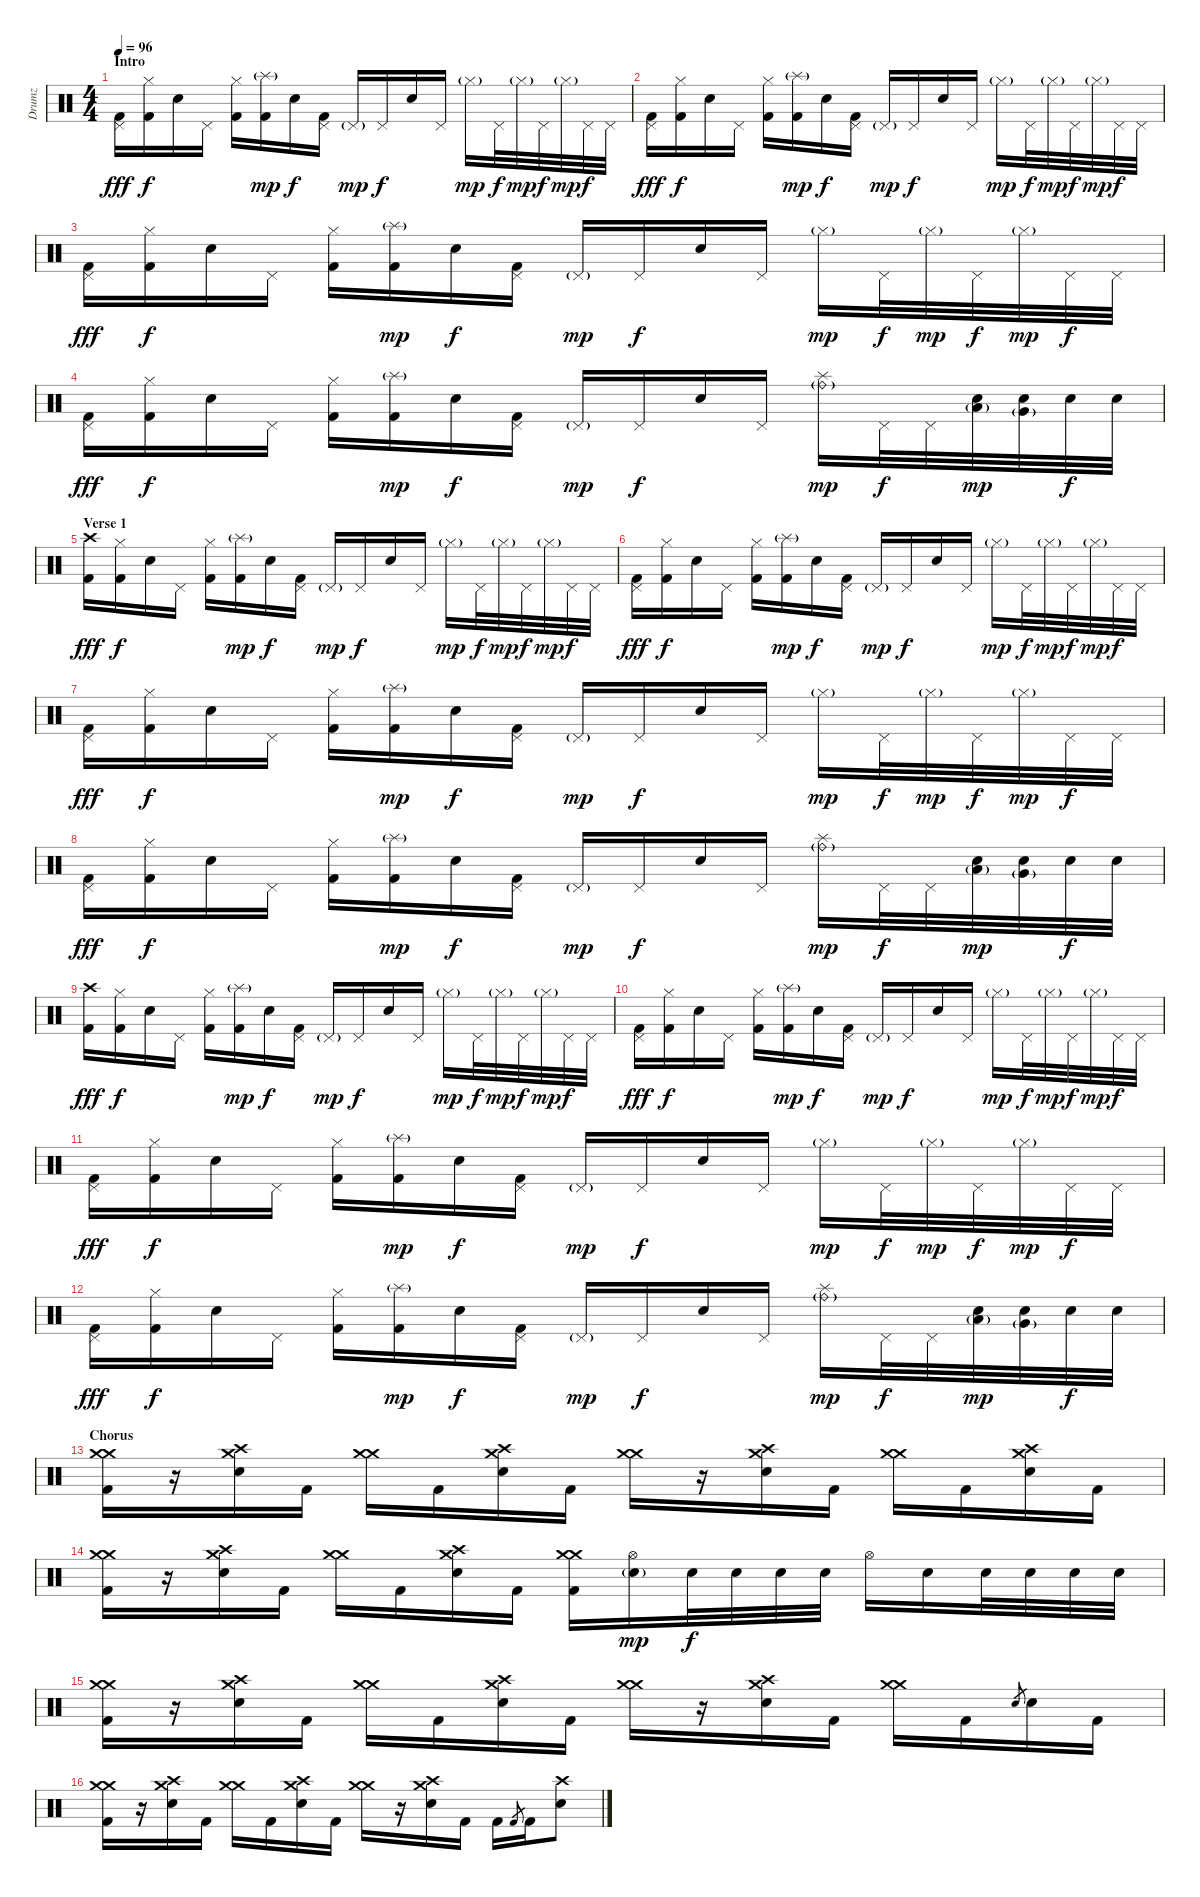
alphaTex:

\track ("Drumz" "Drumz") {instrument percussion}
\staff {score}
\articulation defaults
\ts (4 4)
\section ("" "Intro")
\tempo 96
\clef neutral
\ks c
("Pedal Hi-Hat (hit)" "Kick (hit) 2").16{dy fff} ("Hi-Hat (closed)" "Kick (hit) 2").16{dy f} "Electric Snare (hit)".16 "Pedal Hi-Hat (hit)".16 ("Hi-Hat (closed)" "Kick (hit) 2").16 ("Splash (hit)"{g} "Kick (hit) 2").16{dy mp} "Electric Snare (hit)".16{dy f} ("Pedal Hi-Hat (hit)" "Kick (hit) 2").16 "Pedal Hi-Hat (hit)"{g}.16{dy mp} "Pedal Hi-Hat (hit)".16{dy f} "Electric Snare (hit)".16 "Pedal Hi-Hat (hit)".16 "Hi-Hat (closed)"{g}.16{dy mp} "Pedal Hi-Hat (hit)".32{dy f} "Hi-Hat (closed)"{g}.32{dy mp} "Pedal Hi-Hat (hit)".32{dy f} "Hi-Hat (closed)"{g}.32{dy mp} "Pedal Hi-Hat (hit)".32{dy f} "Pedal Hi-Hat (hit)".32 |
("Pedal Hi-Hat (hit)" "Kick (hit) 2").16{dy fff} ("Hi-Hat (closed)" "Kick (hit) 2").16{dy f} "Electric Snare (hit)".16 "Pedal Hi-Hat (hit)".16 ("Hi-Hat (closed)" "Kick (hit) 2").16 ("Splash (hit)"{g} "Kick (hit) 2").16{dy mp} "Electric Snare (hit)".16{dy f} ("Pedal Hi-Hat (hit)" "Kick (hit) 2").16 "Pedal Hi-Hat (hit)"{g}.16{dy mp} "Pedal Hi-Hat (hit)".16{dy f} "Electric Snare (hit)".16 "Pedal Hi-Hat (hit)".16 "Hi-Hat (closed)"{g}.16{dy mp} "Pedal Hi-Hat (hit)".32{dy f} "Hi-Hat (closed)"{g}.32{dy mp} "Pedal Hi-Hat (hit)".32{dy f} "Hi-Hat (closed)"{g}.32{dy mp} "Pedal Hi-Hat (hit)".32{dy f} "Pedal Hi-Hat (hit)".32 |
("Pedal Hi-Hat (hit)" "Kick (hit) 2").16{dy fff} ("Hi-Hat (closed)" "Kick (hit) 2").16{dy f} "Electric Snare (hit)".16 "Pedal Hi-Hat (hit)".16 ("Hi-Hat (closed)" "Kick (hit) 2").16 ("Splash (hit)"{g} "Kick (hit) 2").16{dy mp} "Electric Snare (hit)".16{dy f} ("Pedal Hi-Hat (hit)" "Kick (hit) 2").16 "Pedal Hi-Hat (hit)"{g}.16{dy mp} "Pedal Hi-Hat (hit)".16{dy f} "Electric Snare (hit)".16 "Pedal Hi-Hat (hit)".16 "Hi-Hat (closed)"{g}.16{dy mp} "Pedal Hi-Hat (hit)".32{dy f} "Hi-Hat (closed)"{g}.32{dy mp} "Pedal Hi-Hat (hit)".32{dy f} "Hi-Hat (closed)"{g}.32{dy mp} "Pedal Hi-Hat (hit)".32{dy f} "Pedal Hi-Hat (hit)".32 |
("Pedal Hi-Hat (hit)" "Kick (hit) 2").16{dy fff} ("Hi-Hat (closed)" "Kick (hit) 2").16{dy f} "Electric Snare (hit)".16 "Pedal Hi-Hat (hit)".16 ("Hi-Hat (closed)" "Kick (hit) 2").16 ("Splash (hit)"{g} "Kick (hit) 2").16{dy mp} "Electric Snare (hit)".16{dy f} ("Pedal Hi-Hat (hit)" "Kick (hit) 2").16 "Pedal Hi-Hat (hit)"{g}.16{dy mp} "Pedal Hi-Hat (hit)".16{dy f} "Electric Snare (hit)".16 "Pedal Hi-Hat (hit)".16 ("Ride (bell)"{g} "Splash (hit)").16{dy mp} "Pedal Hi-Hat (hit)".32{dy f} "Pedal Hi-Hat (hit)".32 ("Low Floor Tom (hit)"{g} "Electric Snare (hit)").32{dy mp} ("Very Low Tom (hit)"{g} "Electric Snare (hit)").32 "Electric Snare (hit)".32{dy f} "Electric Snare (hit)".32 |
\section ("" "Verse 1")
("Crash high (hit)" "Kick (hit) 2").16{dy fff} ("Hi-Hat (closed)" "Kick (hit) 2").16{dy f} "Electric Snare (hit)".16 "Pedal Hi-Hat (hit)".16 ("Hi-Hat (closed)" "Kick (hit) 2").16 ("Splash (hit)"{g} "Kick (hit) 2").16{dy mp} "Electric Snare (hit)".16{dy f} ("Pedal Hi-Hat (hit)" "Kick (hit) 2").16 "Pedal Hi-Hat (hit)"{g}.16{dy mp} "Pedal Hi-Hat (hit)".16{dy f} "Electric Snare (hit)".16 "Pedal Hi-Hat (hit)".16 "Hi-Hat (closed)"{g}.16{dy mp} "Pedal Hi-Hat (hit)".32{dy f} "Hi-Hat (closed)"{g}.32{dy mp} "Pedal Hi-Hat (hit)".32{dy f} "Hi-Hat (closed)"{g}.32{dy mp} "Pedal Hi-Hat (hit)".32{dy f} "Pedal Hi-Hat (hit)".32 |
("Pedal Hi-Hat (hit)" "Kick (hit) 2").16{dy fff} ("Hi-Hat (closed)" "Kick (hit) 2").16{dy f} "Electric Snare (hit)".16 "Pedal Hi-Hat (hit)".16 ("Hi-Hat (closed)" "Kick (hit) 2").16 ("Splash (hit)"{g} "Kick (hit) 2").16{dy mp} "Electric Snare (hit)".16{dy f} ("Pedal Hi-Hat (hit)" "Kick (hit) 2").16 "Pedal Hi-Hat (hit)"{g}.16{dy mp} "Pedal Hi-Hat (hit)".16{dy f} "Electric Snare (hit)".16 "Pedal Hi-Hat (hit)".16 "Hi-Hat (closed)"{g}.16{dy mp} "Pedal Hi-Hat (hit)".32{dy f} "Hi-Hat (closed)"{g}.32{dy mp} "Pedal Hi-Hat (hit)".32{dy f} "Hi-Hat (closed)"{g}.32{dy mp} "Pedal Hi-Hat (hit)".32{dy f} "Pedal Hi-Hat (hit)".32 |
("Pedal Hi-Hat (hit)" "Kick (hit) 2").16{dy fff} ("Hi-Hat (closed)" "Kick (hit) 2").16{dy f} "Electric Snare (hit)".16 "Pedal Hi-Hat (hit)".16 ("Hi-Hat (closed)" "Kick (hit) 2").16 ("Splash (hit)"{g} "Kick (hit) 2").16{dy mp} "Electric Snare (hit)".16{dy f} ("Pedal Hi-Hat (hit)" "Kick (hit) 2").16 "Pedal Hi-Hat (hit)"{g}.16{dy mp} "Pedal Hi-Hat (hit)".16{dy f} "Electric Snare (hit)".16 "Pedal Hi-Hat (hit)".16 "Hi-Hat (closed)"{g}.16{dy mp} "Pedal Hi-Hat (hit)".32{dy f} "Hi-Hat (closed)"{g}.32{dy mp} "Pedal Hi-Hat (hit)".32{dy f} "Hi-Hat (closed)"{g}.32{dy mp} "Pedal Hi-Hat (hit)".32{dy f} "Pedal Hi-Hat (hit)".32 |
("Pedal Hi-Hat (hit)" "Kick (hit) 2").16{dy fff} ("Hi-Hat (closed)" "Kick (hit) 2").16{dy f} "Electric Snare (hit)".16 "Pedal Hi-Hat (hit)".16 ("Hi-Hat (closed)" "Kick (hit) 2").16 ("Splash (hit)"{g} "Kick (hit) 2").16{dy mp} "Electric Snare (hit)".16{dy f} ("Pedal Hi-Hat (hit)" "Kick (hit) 2").16 "Pedal Hi-Hat (hit)"{g}.16{dy mp} "Pedal Hi-Hat (hit)".16{dy f} "Electric Snare (hit)".16 "Pedal Hi-Hat (hit)".16 ("Ride (bell)"{g} "Splash (hit)").16{dy mp} "Pedal Hi-Hat (hit)".32{dy f} "Pedal Hi-Hat (hit)".32 ("Low Floor Tom (hit)"{g} "Electric Snare (hit)").32{dy mp} ("Very Low Tom (hit)"{g} "Electric Snare (hit)").32 "Electric Snare (hit)".32{dy f} "Electric Snare (hit)".32 |
("Crash high (hit)" "Kick (hit) 2").16{dy fff} ("Hi-Hat (closed)" "Kick (hit) 2").16{dy f} "Electric Snare (hit)".16 "Pedal Hi-Hat (hit)".16 ("Hi-Hat (closed)" "Kick (hit) 2").16 ("Splash (hit)"{g} "Kick (hit) 2").16{dy mp} "Electric Snare (hit)".16{dy f} ("Pedal Hi-Hat (hit)" "Kick (hit) 2").16 "Pedal Hi-Hat (hit)"{g}.16{dy mp} "Pedal Hi-Hat (hit)".16{dy f} "Electric Snare (hit)".16 "Pedal Hi-Hat (hit)".16 "Hi-Hat (closed)"{g}.16{dy mp} "Pedal Hi-Hat (hit)".32{dy f} "Hi-Hat (closed)"{g}.32{dy mp} "Pedal Hi-Hat (hit)".32{dy f} "Hi-Hat (closed)"{g}.32{dy mp} "Pedal Hi-Hat (hit)".32{dy f} "Pedal Hi-Hat (hit)".32 |
("Pedal Hi-Hat (hit)" "Kick (hit) 2").16{dy fff} ("Hi-Hat (closed)" "Kick (hit) 2").16{dy f} "Electric Snare (hit)".16 "Pedal Hi-Hat (hit)".16 ("Hi-Hat (closed)" "Kick (hit) 2").16 ("Splash (hit)"{g} "Kick (hit) 2").16{dy mp} "Electric Snare (hit)".16{dy f} ("Pedal Hi-Hat (hit)" "Kick (hit) 2").16 "Pedal Hi-Hat (hit)"{g}.16{dy mp} "Pedal Hi-Hat (hit)".16{dy f} "Electric Snare (hit)".16 "Pedal Hi-Hat (hit)".16 "Hi-Hat (closed)"{g}.16{dy mp} "Pedal Hi-Hat (hit)".32{dy f} "Hi-Hat (closed)"{g}.32{dy mp} "Pedal Hi-Hat (hit)".32{dy f} "Hi-Hat (closed)"{g}.32{dy mp} "Pedal Hi-Hat (hit)".32{dy f} "Pedal Hi-Hat (hit)".32 |
("Pedal Hi-Hat (hit)" "Kick (hit) 2").16{dy fff} ("Hi-Hat (closed)" "Kick (hit) 2").16{dy f} "Electric Snare (hit)".16 "Pedal Hi-Hat (hit)".16 ("Hi-Hat (closed)" "Kick (hit) 2").16 ("Splash (hit)"{g} "Kick (hit) 2").16{dy mp} "Electric Snare (hit)".16{dy f} ("Pedal Hi-Hat (hit)" "Kick (hit) 2").16 "Pedal Hi-Hat (hit)"{g}.16{dy mp} "Pedal Hi-Hat (hit)".16{dy f} "Electric Snare (hit)".16 "Pedal Hi-Hat (hit)".16 "Hi-Hat (closed)"{g}.16{dy mp} "Pedal Hi-Hat (hit)".32{dy f} "Hi-Hat (closed)"{g}.32{dy mp} "Pedal Hi-Hat (hit)".32{dy f} "Hi-Hat (closed)"{g}.32{dy mp} "Pedal Hi-Hat (hit)".32{dy f} "Pedal Hi-Hat (hit)".32 |
("Pedal Hi-Hat (hit)" "Kick (hit) 2").16{dy fff} ("Hi-Hat (closed)" "Kick (hit) 2").16{dy f} "Electric Snare (hit)".16 "Pedal Hi-Hat (hit)".16 ("Hi-Hat (closed)" "Kick (hit) 2").16 ("Splash (hit)"{g} "Kick (hit) 2").16{dy mp} "Electric Snare (hit)".16{dy f} ("Pedal Hi-Hat (hit)" "Kick (hit) 2").16 "Pedal Hi-Hat (hit)"{g}.16{dy mp} "Pedal Hi-Hat (hit)".16{dy f} "Electric Snare (hit)".16 "Pedal Hi-Hat (hit)".16 ("Ride (bell)"{g} "Splash (hit)").16{dy mp} "Pedal Hi-Hat (hit)".32{dy f} "Pedal Hi-Hat (hit)".32 ("Low Floor Tom (hit)"{g} "Electric Snare (hit)").32{dy mp} ("Very Low Tom (hit)"{g} "Electric Snare (hit)").32 "Electric Snare (hit)".32{dy f} "Electric Snare (hit)".32 |
\section ("" "Chorus")
("Crash medium (hit)" "Crash medium (hit)" "Kick (hit) 2").16 r.16 ("Crash high (hit)" "Crash medium (hit)" "Electric Snare (hit)").16 "Kick (hit) 2".16 ("Crash medium (hit)" "Crash medium (hit)").16 "Kick (hit) 2".16 ("Crash high (hit)" "Crash medium (hit)" "Electric Snare (hit)").16 "Kick (hit) 2".16 ("Crash medium (hit)" "Crash medium (hit)").16 r.16 ("Crash high (hit)" "Crash medium (hit)" "Electric Snare (hit)").16 "Kick (hit) 2".16 ("Crash medium (hit)" "Crash medium (hit)").16 "Kick (hit) 2".16 ("Crash high (hit)" "Crash medium (hit)" "Electric Snare (hit)").16 "Kick (hit) 2".16 |
("Crash medium (hit)" "Crash medium (hit)" "Kick (hit) 2").16 r.16 ("Crash high (hit)" "Crash medium (hit)" "Electric Snare (hit)").16 "Kick (hit) 2".16 ("Crash medium (hit)" "Crash medium (hit)").16 "Kick (hit) 2".16 ("Crash high (hit)" "Crash medium (hit)" "Electric Snare (hit)").16 "Kick (hit) 2".16 ("Crash medium (hit)" "Crash medium (hit)" "Kick (hit) 2").16 ("Hi-Hat (open)" "Electric Snare (hit)"{g}).16{dy mp} "Electric Snare (hit)".32{dy f} "Electric Snare (hit)".32 "Electric Snare (hit)".32 "Electric Snare (hit)".32 "Hi-Hat (open)".16 "Electric Snare (hit)".16 "Electric Snare (hit)".32 "Electric Snare (hit)".32 "Electric Snare (hit)".32 "Electric Snare (hit)".32 |
("Crash medium (hit)" "Crash medium (hit)" "Kick (hit) 2").16 r.16 ("Crash high (hit)" "Crash medium (hit)" "Electric Snare (hit)").16 "Kick (hit) 2".16 ("Crash medium (hit)" "Crash medium (hit)").16 "Kick (hit) 2".16 ("Crash high (hit)" "Crash medium (hit)" "Electric Snare (hit)").16 "Kick (hit) 2".16 ("Crash medium (hit)" "Crash medium (hit)").16 r.16 ("Crash high (hit)" "Crash medium (hit)" "Electric Snare (hit)").16 "Kick (hit) 2".16 ("Crash medium (hit)" "Crash medium (hit)").16 "Kick (hit) 2".16 "Electric Snare (hit)".8{gr} "Electric Snare (hit)".16 "Kick (hit) 2".16 |
("Crash medium (hit)" "Crash medium (hit)" "Kick (hit) 2").16 r.16 ("Crash high (hit)" "Crash medium (hit)" "Electric Snare (hit)").16 "Kick (hit) 2".16 ("Crash medium (hit)" "Crash medium (hit)").16 "Kick (hit) 2".16 ("Crash high (hit)" "Crash medium (hit)" "Electric Snare (hit)").16 "Kick (hit) 2".16 ("Crash medium (hit)" "Crash medium (hit)").16 r.16 ("Crash high (hit)" "Crash medium (hit)" "Electric Snare (hit)").16 "Kick (hit) 2".16 "Kick (hit) 2".16 "Kick (hit) 2".8{gr} "Kick (hit) 2".16 ("Crash high (hit)" "Electric Snare (hit)").8
